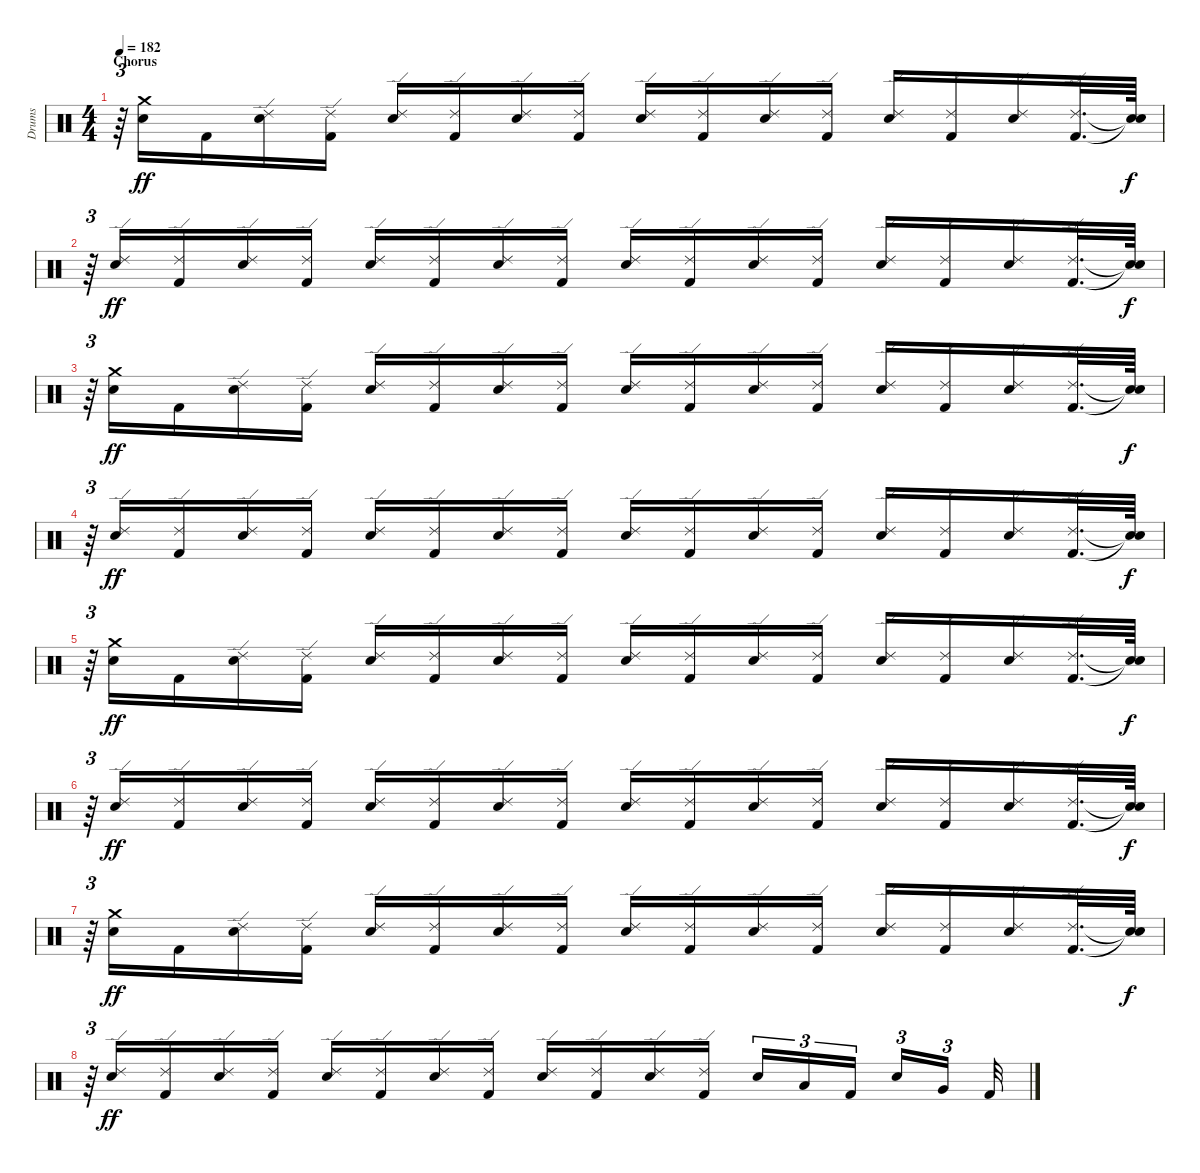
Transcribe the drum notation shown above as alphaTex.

\track ("Drums" "Drums") {instrument percussion}
\staff {score}
\articulation defaults
\ts (4 4)
\section ("" "Chorus")
\tempo 182
\clef neutral
\ks c
r.64{tu (3 2) dy ff} ("Crash medium (hit)" "Snare (hit) 2").16 "Kick (hit) 2".16 ("Snare (hit) 2" "Ride (edge) 2").16 ("Kick (hit) 2" "Ride (edge) 2").16 ("Snare (hit) 2" "Ride (edge) 2").16 ("Kick (hit) 2" "Ride (edge) 2").16 ("Snare (hit) 2" "Ride (edge) 2").16 ("Kick (hit) 2" "Ride (edge) 2").16 ("Snare (hit) 2" "Ride (edge) 2").16 ("Kick (hit) 2" "Ride (edge) 2").16 ("Snare (hit) 2" "Ride (edge) 2").16 ("Kick (hit) 2" "Ride (edge) 2").16 ("Snare (hit) 2" "Ride (edge) 2").16 ("Kick (hit) 2" "Ride (edge) 2").16 ("Snare (hit) 2" "Ride (edge) 2").16 ("Kick (hit) 2" "Ride (edge) 2").32{d} ("Snare (hit)"{t} "Snare (hit)"{t}).64{dy f} |
r.64{tu (3 2)} ("Snare (hit) 2" "Ride (edge) 2").16{dy ff} ("Kick (hit) 2" "Ride (edge) 2").16 ("Snare (hit) 2" "Ride (edge) 2").16 ("Kick (hit) 2" "Ride (edge) 2").16 ("Snare (hit) 2" "Ride (edge) 2").16 ("Kick (hit) 2" "Ride (edge) 2").16 ("Snare (hit) 2" "Ride (edge) 2").16 ("Kick (hit) 2" "Ride (edge) 2").16 ("Snare (hit) 2" "Ride (edge) 2").16 ("Kick (hit) 2" "Ride (edge) 2").16 ("Snare (hit) 2" "Ride (edge) 2").16 ("Kick (hit) 2" "Ride (edge) 2").16 ("Snare (hit) 2" "Ride (edge) 2").16 ("Kick (hit) 2" "Ride (edge) 2").16 ("Snare (hit) 2" "Ride (edge) 2").16 ("Kick (hit) 2" "Ride (edge) 2").32{d} ("Snare (hit)"{t} "Snare (hit)"{t}).64{dy f} |
r.64{tu (3 2)} ("Crash medium (hit)" "Snare (hit) 2").16{dy ff} "Kick (hit) 2".16 ("Snare (hit) 2" "Ride (edge) 2").16 ("Kick (hit) 2" "Ride (edge) 2").16 ("Snare (hit) 2" "Ride (edge) 2").16 ("Kick (hit) 2" "Ride (edge) 2").16 ("Snare (hit) 2" "Ride (edge) 2").16 ("Kick (hit) 2" "Ride (edge) 2").16 ("Snare (hit) 2" "Ride (edge) 2").16 ("Kick (hit) 2" "Ride (edge) 2").16 ("Snare (hit) 2" "Ride (edge) 2").16 ("Kick (hit) 2" "Ride (edge) 2").16 ("Snare (hit) 2" "Ride (edge) 2").16 ("Kick (hit) 2" "Ride (edge) 2").16 ("Snare (hit) 2" "Ride (edge) 2").16 ("Kick (hit) 2" "Ride (edge) 2").32{d} ("Snare (hit)"{t} "Snare (hit)"{t}).64{dy f} |
r.64{tu (3 2)} ("Snare (hit) 2" "Ride (edge) 2").16{dy ff} ("Kick (hit) 2" "Ride (edge) 2").16 ("Snare (hit) 2" "Ride (edge) 2").16 ("Kick (hit) 2" "Ride (edge) 2").16 ("Snare (hit) 2" "Ride (edge) 2").16 ("Kick (hit) 2" "Ride (edge) 2").16 ("Snare (hit) 2" "Ride (edge) 2").16 ("Kick (hit) 2" "Ride (edge) 2").16 ("Snare (hit) 2" "Ride (edge) 2").16 ("Kick (hit) 2" "Ride (edge) 2").16 ("Snare (hit) 2" "Ride (edge) 2").16 ("Kick (hit) 2" "Ride (edge) 2").16 ("Snare (hit) 2" "Ride (edge) 2").16 ("Kick (hit) 2" "Ride (edge) 2").16 ("Snare (hit) 2" "Ride (edge) 2").16 ("Kick (hit) 2" "Ride (edge) 2").32{d} ("Snare (hit)"{t} "Snare (hit)"{t}).64{dy f} |
r.64{tu (3 2)} ("Crash medium (hit)" "Snare (hit) 2").16{dy ff} "Kick (hit) 2".16 ("Snare (hit) 2" "Ride (edge) 2").16 ("Kick (hit) 2" "Ride (edge) 2").16 ("Snare (hit) 2" "Ride (edge) 2").16 ("Kick (hit) 2" "Ride (edge) 2").16 ("Snare (hit) 2" "Ride (edge) 2").16 ("Kick (hit) 2" "Ride (edge) 2").16 ("Snare (hit) 2" "Ride (edge) 2").16 ("Kick (hit) 2" "Ride (edge) 2").16 ("Snare (hit) 2" "Ride (edge) 2").16 ("Kick (hit) 2" "Ride (edge) 2").16 ("Snare (hit) 2" "Ride (edge) 2").16 ("Kick (hit) 2" "Ride (edge) 2").16 ("Snare (hit) 2" "Ride (edge) 2").16 ("Kick (hit) 2" "Ride (edge) 2").32{d} ("Snare (hit)"{t} "Snare (hit)"{t}).64{dy f} |
r.64{tu (3 2)} ("Snare (hit) 2" "Ride (edge) 2").16{dy ff} ("Kick (hit) 2" "Ride (edge) 2").16 ("Snare (hit) 2" "Ride (edge) 2").16 ("Kick (hit) 2" "Ride (edge) 2").16 ("Snare (hit) 2" "Ride (edge) 2").16 ("Kick (hit) 2" "Ride (edge) 2").16 ("Snare (hit) 2" "Ride (edge) 2").16 ("Kick (hit) 2" "Ride (edge) 2").16 ("Snare (hit) 2" "Ride (edge) 2").16 ("Kick (hit) 2" "Ride (edge) 2").16 ("Snare (hit) 2" "Ride (edge) 2").16 ("Kick (hit) 2" "Ride (edge) 2").16 ("Snare (hit) 2" "Ride (edge) 2").16 ("Kick (hit) 2" "Ride (edge) 2").16 ("Snare (hit) 2" "Ride (edge) 2").16 ("Kick (hit) 2" "Ride (edge) 2").32{d} ("Snare (hit)"{t} "Snare (hit)"{t}).64{dy f} |
r.64{tu (3 2)} ("Crash medium (hit)" "Snare (hit) 2").16{dy ff} "Kick (hit) 2".16 ("Snare (hit) 2" "Ride (edge) 2").16 ("Kick (hit) 2" "Ride (edge) 2").16 ("Snare (hit) 2" "Ride (edge) 2").16 ("Kick (hit) 2" "Ride (edge) 2").16 ("Snare (hit) 2" "Ride (edge) 2").16 ("Kick (hit) 2" "Ride (edge) 2").16 ("Snare (hit) 2" "Ride (edge) 2").16 ("Kick (hit) 2" "Ride (edge) 2").16 ("Snare (hit) 2" "Ride (edge) 2").16 ("Kick (hit) 2" "Ride (edge) 2").16 ("Snare (hit) 2" "Ride (edge) 2").16 ("Kick (hit) 2" "Ride (edge) 2").16 ("Snare (hit) 2" "Ride (edge) 2").16 ("Kick (hit) 2" "Ride (edge) 2").32{d} ("Snare (hit)"{t} "Snare (hit)"{t}).64{dy f} |
r.64{tu (3 2)} ("Snare (hit) 2" "Ride (edge) 2").16{dy ff} ("Kick (hit) 2" "Ride (edge) 2").16 ("Snare (hit) 2" "Ride (edge) 2").16 ("Kick (hit) 2" "Ride (edge) 2").16 ("Snare (hit) 2" "Ride (edge) 2").16 ("Kick (hit) 2" "Ride (edge) 2").16 ("Snare (hit) 2" "Ride (edge) 2").16 ("Kick (hit) 2" "Ride (edge) 2").16 ("Snare (hit) 2" "Ride (edge) 2").16 ("Kick (hit) 2" "Ride (edge) 2").16 ("Snare (hit) 2" "Ride (edge) 2").16 ("Kick (hit) 2" "Ride (edge) 2").16 "Snare (hit) 2".16{tu (3 2)} "Low Tom (hit)".16{tu (3 2)} "Kick (hit) 2".16{tu (3 2) beam splitsecondary} "Snare (hit) 2".16{tu (3 2)} "Very Low Tom (hit)".16{tu (3 2) beam splitsecondary} "Kick (hit) 2".32
